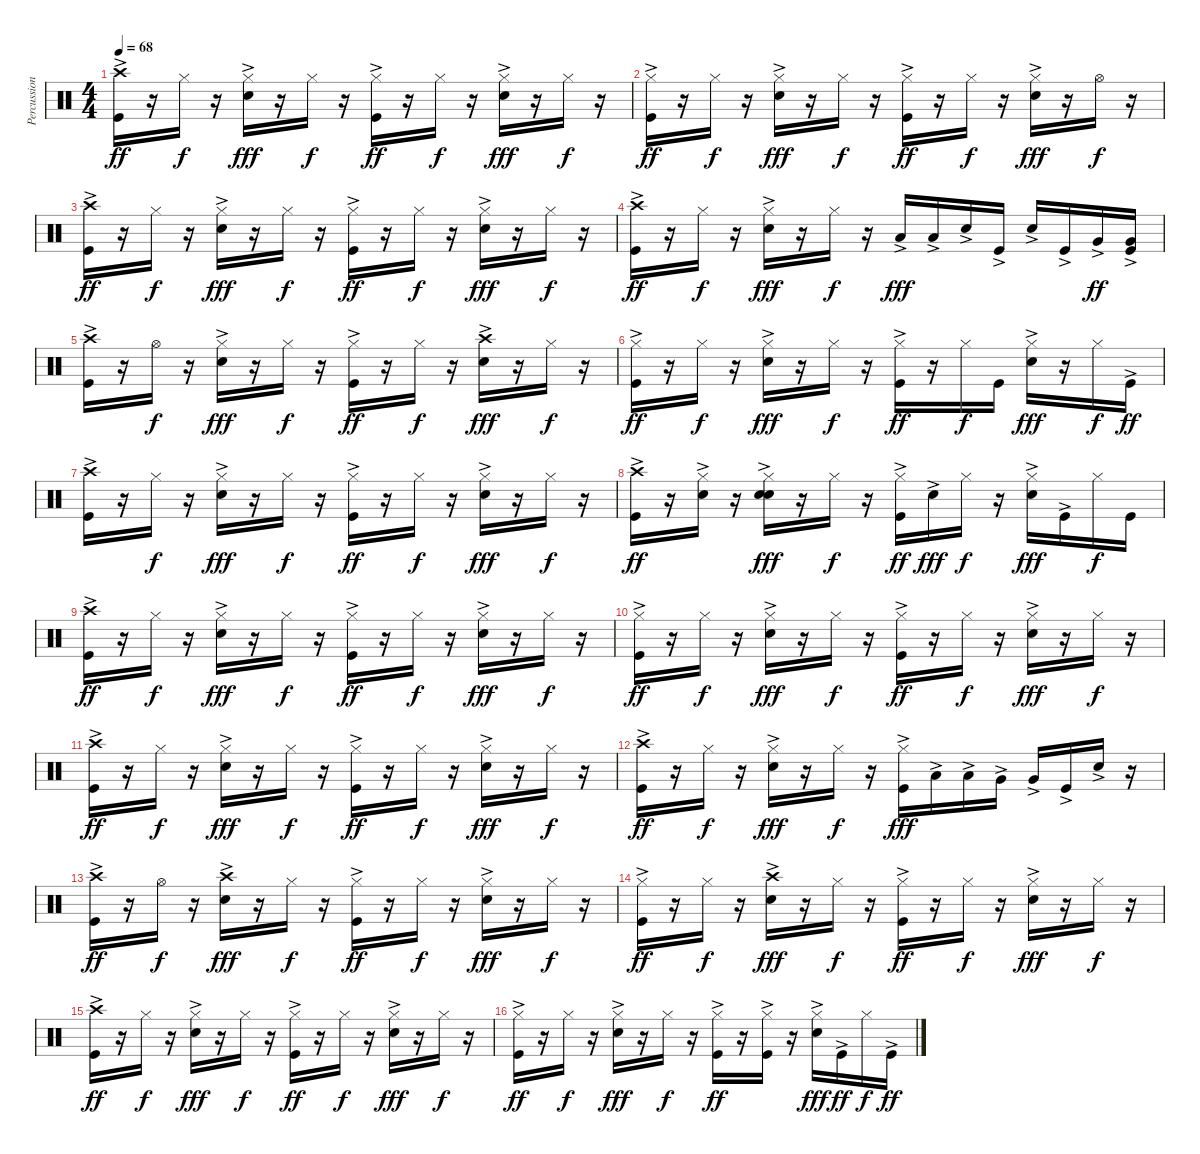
\track ("Percussion" "Percussion") {instrument percussion}
\staff {score}
\articulation defaults
\ts (4 4)
\tempo 68
\clef neutral
\ks c
("Crash high (hit)" "Kick (hit)"{ac}).16{dy ff} r.16 "Hi-Hat (closed)".16{dy f} r.16 ("Hi-Hat (closed)" "Snare (hit) 2"{ac}).16{dy fff} r.16 "Hi-Hat (closed)".16{dy f} r.16 ("Hi-Hat (closed)" "Kick (hit)"{ac}).16{dy ff} r.16 "Hi-Hat (closed)".16{dy f} r.16 ("Hi-Hat (closed)" "Snare (hit) 2"{ac}).16{dy fff} r.16 "Hi-Hat (closed)".16{dy f} r.16 |
("Hi-Hat (closed)" "Kick (hit)"{ac}).16{dy ff} r.16 "Hi-Hat (closed)".16{dy f} r.16 ("Hi-Hat (closed)" "Snare (hit) 2"{ac}).16{dy fff} r.16 "Hi-Hat (closed)".16{dy f} r.16 ("Hi-Hat (closed)" "Kick (hit)"{ac}).16{dy ff} r.16 "Hi-Hat (closed)".16{dy f} r.16 ("Hi-Hat (closed)" "Snare (hit) 2"{ac}).16{dy fff} r.16 "Hi-Hat (open)".16{dy f} r.16 |
("Crash high (hit)" "Kick (hit)"{ac}).16{dy ff} r.16 "Hi-Hat (closed)".16{dy f} r.16 ("Hi-Hat (closed)" "Snare (hit) 2"{ac}).16{dy fff} r.16 "Hi-Hat (closed)".16{dy f} r.16 ("Hi-Hat (closed)" "Kick (hit)"{ac}).16{dy ff} r.16 "Hi-Hat (closed)".16{dy f} r.16 ("Hi-Hat (closed)" "Snare (hit) 2"{ac}).16{dy fff} r.16 "Hi-Hat (closed)".16{dy f} r.16 |
("Crash high (hit)" "Kick (hit)"{ac}).16{dy ff} r.16 "Hi-Hat (closed)".16{dy f} r.16 ("Hi-Hat (closed)" "Snare (hit) 2"{ac}).16{dy fff} r.16 "Hi-Hat (closed)".16{dy f} r.16 "Low Tom (hit)"{ac}.16{dy fff} "Low Tom (hit)"{ac}.16 "Snare (hit) 2"{ac}.16 "Kick (hit)"{ac}.16 "Snare (hit) 2"{ac}.16 "Kick (hit)"{ac}.16 "Very Low Tom (hit)"{ac}.16{dy ff} ("Very Low Tom (hit)"{ac} "Kick (hit)").16 |
("Crash high (hit)" "Kick (hit)"{ac}).16 r.16 "Hi-Hat (open)".16{dy f} r.16 ("Hi-Hat (closed)" "Snare (hit) 2"{ac}).16{dy fff} r.16 "Hi-Hat (closed)".16{dy f} r.16 ("Hi-Hat (closed)" "Kick (hit)"{ac}).16{dy ff} r.16 "Hi-Hat (closed)".16{dy f} r.16 ("Crash high (hit)" "Snare (hit) 2"{ac}).16{dy fff} r.16 "Hi-Hat (closed)".16{dy f} r.16 |
("Hi-Hat (closed)" "Kick (hit)"{ac}).16{dy ff} r.16 "Hi-Hat (closed)".16{dy f} r.16 ("Hi-Hat (closed)" "Snare (hit) 2"{ac}).16{dy fff} r.16 "Hi-Hat (closed)".16{dy f} r.16 ("Hi-Hat (closed)" "Kick (hit)"{ac}).16{dy ff} r.16 "Hi-Hat (closed)".16{dy f} "Kick (hit)".16 ("Hi-Hat (closed)" "Snare (hit) 2"{ac}).16{dy fff} r.16 "Hi-Hat (closed)".16{dy f} "Kick (hit)"{ac}.16{dy ff} |
("Crash high (hit)" "Kick (hit)"{ac}).16 r.16 "Hi-Hat (closed)".16{dy f} r.16 ("Hi-Hat (closed)" "Snare (hit) 2"{ac}).16{dy fff} r.16 "Hi-Hat (closed)".16{dy f} r.16 ("Hi-Hat (closed)" "Kick (hit)"{ac}).16{dy ff} r.16 "Hi-Hat (closed)".16{dy f} r.16 ("Hi-Hat (closed)" "Snare (hit) 2"{ac}).16{dy fff} r.16 "Hi-Hat (closed)".16{dy f} r.16 |
("Crash high (hit)" "Kick (hit)"{ac}).16{dy ff} r.16 ("Hi-Hat (closed)" "Hand Clap (hit)"{ac}).16 r.16 ("Hi-Hat (closed)" "Hand Clap (hit)"{ac} "Snare (hit) 2"{ac}).16{dy fff} r.16 "Hi-Hat (closed)".16{dy f} r.16 ("Hi-Hat (closed)" "Kick (hit)"{ac}).16{dy ff} "Snare (hit) 2"{ac}.16{dy fff} "Hi-Hat (closed)".16{dy f} r.16 ("Hi-Hat (closed)" "Snare (hit) 2"{ac}).16{dy fff} "Kick (hit)"{ac}.16 "Hi-Hat (closed)".16{dy f} "Kick (hit)".16 |
("Crash high (hit)" "Kick (hit)"{ac}).16{dy ff} r.16 "Hi-Hat (closed)".16{dy f} r.16 ("Hi-Hat (closed)" "Snare (hit) 2"{ac}).16{dy fff} r.16 "Hi-Hat (closed)".16{dy f} r.16 ("Hi-Hat (closed)" "Kick (hit)"{ac}).16{dy ff} r.16 "Hi-Hat (closed)".16{dy f} r.16 ("Hi-Hat (closed)" "Snare (hit) 2"{ac}).16{dy fff} r.16 "Hi-Hat (closed)".16{dy f} r.16 |
("Hi-Hat (closed)" "Kick (hit)"{ac}).16{dy ff} r.16 "Hi-Hat (closed)".16{dy f} r.16 ("Hi-Hat (closed)" "Snare (hit) 2"{ac}).16{dy fff} r.16 "Hi-Hat (closed)".16{dy f} r.16 ("Hi-Hat (closed)" "Kick (hit)"{ac}).16{dy ff} r.16 "Hi-Hat (closed)".16{dy f} r.16 ("Hi-Hat (closed)" "Snare (hit) 2"{ac}).16{dy fff} r.16 "Hi-Hat (closed)".16{dy f} r.16 |
("Crash high (hit)" "Kick (hit)"{ac}).16{dy ff} r.16 "Hi-Hat (closed)".16{dy f} r.16 ("Hi-Hat (closed)" "Snare (hit) 2"{ac}).16{dy fff} r.16 "Hi-Hat (closed)".16{dy f} r.16 ("Hi-Hat (closed)" "Kick (hit)"{ac}).16{dy ff} r.16 "Hi-Hat (closed)".16{dy f} r.16 ("Hi-Hat (closed)" "Snare (hit) 2"{ac}).16{dy fff} r.16 "Hi-Hat (closed)".16{dy f} r.16 |
("Crash high (hit)" "Kick (hit)"{ac}).16{dy ff} r.16 "Hi-Hat (closed)".16{dy f} r.16 ("Hi-Hat (closed)" "Snare (hit) 2"{ac}).16{dy fff} r.16 "Hi-Hat (closed)".16{dy f} r.16 ("Hi-Hat (closed)" "Kick (hit)"{ac}).16{dy fff} "Low Tom (hit)"{ac}.16 "Low Tom (hit)"{ac}.16 "Very Low Tom (hit)"{ac}.16 "Very Low Tom (hit)"{ac}.16 "Kick (hit)"{ac}.16 "Snare (hit) 2"{ac}.16 r.16 |
("Crash high (hit)" "Kick (hit)"{ac}).16{dy ff} r.16 "Hi-Hat (open)".16{dy f} r.16 ("Crash high (hit)" "Snare (hit) 2"{ac}).16{dy fff} r.16 "Hi-Hat (closed)".16{dy f} r.16 ("Hi-Hat (closed)" "Kick (hit)"{ac}).16{dy ff} r.16 "Hi-Hat (closed)".16{dy f} r.16 ("Hi-Hat (closed)" "Snare (hit) 2"{ac}).16{dy fff} r.16 "Hi-Hat (closed)".16{dy f} r.16 |
("Hi-Hat (closed)" "Kick (hit)"{ac}).16{dy ff} r.16 "Hi-Hat (closed)".16{dy f} r.16 ("Crash high (hit)" "Snare (hit) 2"{ac}).16{dy fff} r.16 "Hi-Hat (closed)".16{dy f} r.16 ("Hi-Hat (closed)" "Kick (hit)"{ac}).16{dy ff} r.16 "Hi-Hat (closed)".16{dy f} r.16 ("Hi-Hat (closed)" "Snare (hit) 2"{ac}).16{dy fff} r.16 "Hi-Hat (closed)".16{dy f} r.16 |
("Crash high (hit)" "Kick (hit)"{ac}).16{dy ff} r.16 "Hi-Hat (closed)".16{dy f} r.16 ("Hi-Hat (closed)" "Snare (hit) 2"{ac}).16{dy fff} r.16 "Hi-Hat (closed)".16{dy f} r.16 ("Hi-Hat (closed)" "Kick (hit)"{ac}).16{dy ff} r.16 "Hi-Hat (closed)".16{dy f} r.16 ("Hi-Hat (closed)" "Snare (hit) 2"{ac}).16{dy fff} r.16 "Hi-Hat (closed)".16{dy f} r.16 |
("Hi-Hat (closed)" "Kick (hit)"{ac}).16{dy ff} r.16 "Hi-Hat (closed)".16{dy f} r.16 ("Hi-Hat (closed)" "Snare (hit) 2"{ac}).16{dy fff} r.16 "Hi-Hat (closed)".16{dy f} r.16 ("Hi-Hat (closed)" "Kick (hit)"{ac}).16{dy ff} r.16 ("Hi-Hat (closed)" "Kick (hit)"{ac}).16 r.16 ("Hi-Hat (closed)" "Snare (hit) 2"{ac}).16{dy fff} "Kick (hit)"{ac}.16{dy ff} "Hi-Hat (closed)".16{dy f} "Kick (hit)"{ac}.16{dy ff}
